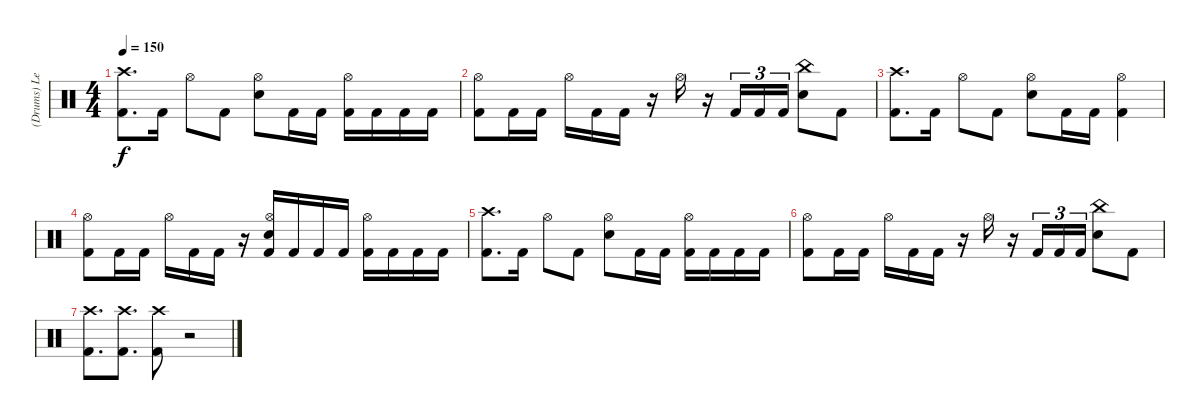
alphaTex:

\track ("(Drums) Leche" "(Drums) Le") {instrument percussion}
\staff {score}
\articulation defaults
\ts (4 4)
\tempo 150
\clef neutral
\ks c
("Crash high (hit)" "Kick (hit) 2").8{d dy f} "Kick (hit) 2".16 "Hi-Hat (open)".8 "Kick (hit) 2".8 ("Hi-Hat (open)" "Electric Snare (hit)").8 "Kick (hit) 2".16 "Kick (hit) 2".16 ("Hi-Hat (open)" "Kick (hit) 2").16 "Kick (hit) 2".16 "Kick (hit) 2".16 "Kick (hit) 2".16 |
("Hi-Hat (open)" "Kick (hit) 2").8 "Kick (hit) 2".16 "Kick (hit) 2".16 "Hi-Hat (open)".16 "Kick (hit) 2".16 "Kick (hit) 2".16 r.16 "Hi-Hat (open)".16 r.16 "Kick (hit) 2".16{tu (3 2)} "Kick (hit) 2".16{tu (3 2)} "Kick (hit) 2".16{tu (3 2)} ("China (hit)" "Electric Snare (hit)").8 "Kick (hit) 2".8 |
("Crash high (hit)" "Kick (hit) 2").8{d} "Kick (hit) 2".16 "Hi-Hat (open)".8 "Kick (hit) 2".8 ("Hi-Hat (open)" "Electric Snare (hit)").8 "Kick (hit) 2".16 "Kick (hit) 2".16 ("Hi-Hat (open)" "Kick (hit) 2").4 |
("Hi-Hat (open)" "Kick (hit) 2").8 "Kick (hit) 2".16 "Kick (hit) 2".16 "Hi-Hat (open)".16 "Kick (hit) 2".16 "Kick (hit) 2".16 r.16 ("Hi-Hat (open)" "Electric Snare (hit)" "Kick (hit) 2").16 "Kick (hit) 2".16 "Kick (hit) 2".16 "Kick (hit) 2".16 ("Hi-Hat (open)" "Kick (hit) 2").16 "Kick (hit) 2".16 "Kick (hit) 2".16 "Kick (hit) 2".16 |
("Crash high (hit)" "Kick (hit) 2").8{d} "Kick (hit) 2".16 "Hi-Hat (open)".8 "Kick (hit) 2".8 ("Hi-Hat (open)" "Electric Snare (hit)").8 "Kick (hit) 2".16 "Kick (hit) 2".16 ("Hi-Hat (open)" "Kick (hit) 2").16 "Kick (hit) 2".16 "Kick (hit) 2".16 "Kick (hit) 2".16 |
("Hi-Hat (open)" "Kick (hit) 2").8 "Kick (hit) 2".16 "Kick (hit) 2".16 "Hi-Hat (open)".16 "Kick (hit) 2".16 "Kick (hit) 2".16 r.16 "Hi-Hat (open)".16 r.16 "Kick (hit) 2".16{tu (3 2)} "Kick (hit) 2".16{tu (3 2)} "Kick (hit) 2".16{tu (3 2)} ("China (hit)" "Electric Snare (hit)").8 "Kick (hit) 2".8 |
("Crash high (hit)" "Kick (hit) 2").8{d} ("Crash high (hit)" "Kick (hit) 2").8{d} ("Crash high (hit)" "Kick (hit) 2").8 r.2
